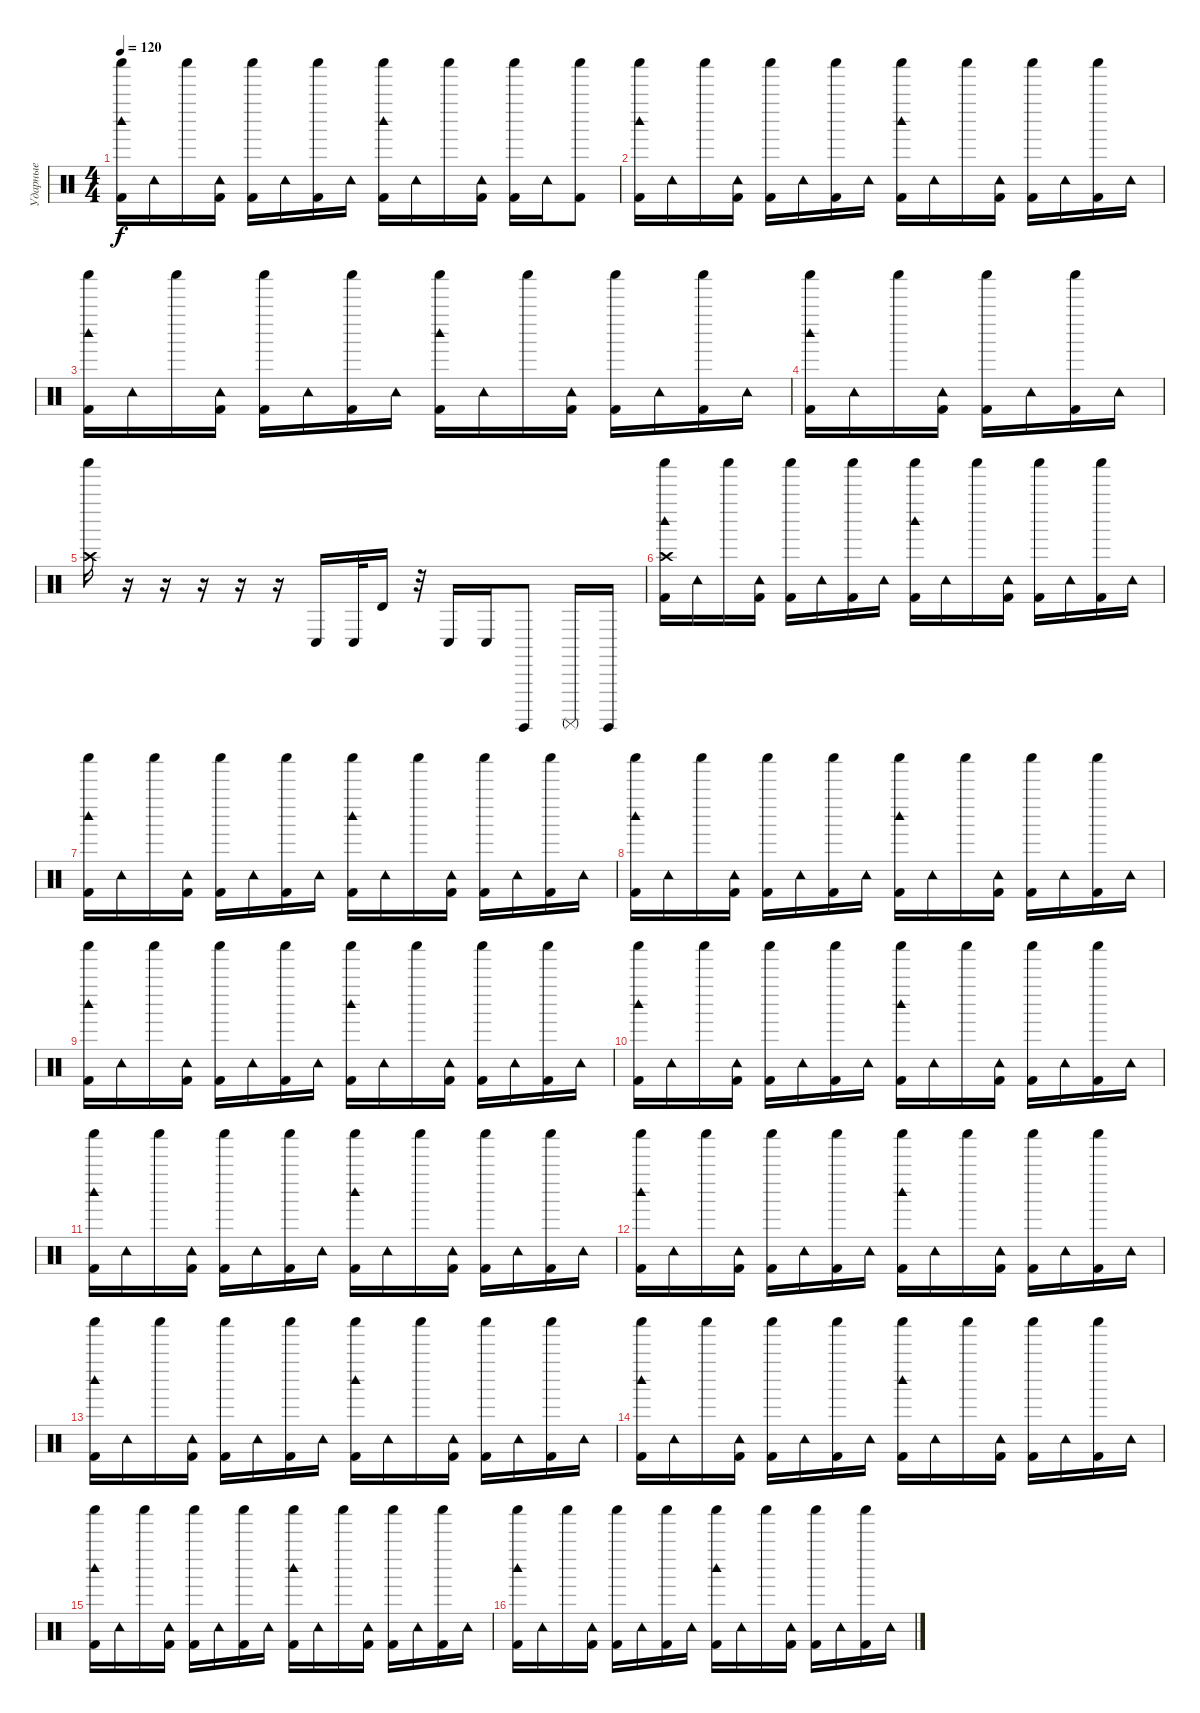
\track ("Ударные" "Ударные") {instrument percussion}
\staff {score}
\articulation defaults
\ts (4 4)
\tempo 120
\clef neutral
\ks c
("Shaker (hit)" "Kick (hit) 2" "Woodblock high (hit)").16{dy f} "Tambourine (hit)".16 "Shaker (hit)".16 ("Tambourine (hit)" "Kick (hit) 2").16 ("Shaker (hit)" "Kick (hit) 2").16 "Tambourine (hit)".16 ("Shaker (hit)" "Kick (hit) 2").16 "Tambourine (hit)".16 ("Shaker (hit)" "Kick (hit) 2" "Woodblock high (hit)").16 "Tambourine (hit)".16 "Shaker (hit)".16 ("Tambourine (hit)" "Kick (hit) 2").16 ("Shaker (hit)" "Kick (hit) 2").16 "Tambourine (hit)".16 ("Shaker (hit)" "Kick (hit) 2").8 |
("Shaker (hit)" "Kick (hit) 2" "Woodblock high (hit)").16 "Tambourine (hit)".16 "Shaker (hit)".16 ("Tambourine (hit)" "Kick (hit) 2").16 ("Shaker (hit)" "Kick (hit) 2").16 "Tambourine (hit)".16 ("Shaker (hit)" "Kick (hit) 2").16 "Tambourine (hit)".16 ("Shaker (hit)" "Kick (hit) 2" "Woodblock high (hit)").16 "Tambourine (hit)".16 "Shaker (hit)".16 ("Tambourine (hit)" "Kick (hit) 2").16 ("Shaker (hit)" "Kick (hit) 2").16 "Tambourine (hit)".16 ("Shaker (hit)" "Kick (hit) 2").16 "Tambourine (hit)".16 |
("Shaker (hit)" "Kick (hit) 2" "Woodblock high (hit)").16 "Tambourine (hit)".16 "Shaker (hit)".16 ("Tambourine (hit)" "Kick (hit) 2").16 ("Shaker (hit)" "Kick (hit) 2").16 "Tambourine (hit)".16 ("Shaker (hit)" "Kick (hit) 2").16 "Tambourine (hit)".16 ("Shaker (hit)" "Kick (hit) 2" "Woodblock high (hit)").16 "Tambourine (hit)".16 "Shaker (hit)".16 ("Tambourine (hit)" "Kick (hit) 2").16 ("Shaker (hit)" "Kick (hit) 2").16 "Tambourine (hit)".16 ("Shaker (hit)" "Kick (hit) 2").16 "Tambourine (hit)".16 |
("Shaker (hit)" "Kick (hit) 2" "Woodblock high (hit)").16 "Tambourine (hit)".16 "Shaker (hit)".16 ("Tambourine (hit)" "Kick (hit) 2").16 ("Shaker (hit)" "Kick (hit) 2").16 "Tambourine (hit)".16 ("Shaker (hit)" "Kick (hit) 2").16 "Tambourine (hit)".16 |
("Shaker (hit)" "Crash high (hit)").16 r.16 r.16 r.16 r.16 r.16 "Conga low (hit)".16 "Conga low (hit)".32 "Timbale high (hit)".16 r.32 "Conga low (hit)".16 "Conga low (hit)".16 "Surdo (hit)".8 "Surdo (mute)".16 "Surdo (hit)".16 |
("Shaker (hit)" "Kick (hit) 2" "Woodblock high (hit)" "Crash high (hit)").16 "Tambourine (hit)".16 "Shaker (hit)".16 ("Tambourine (hit)" "Kick (hit) 2").16 ("Shaker (hit)" "Kick (hit) 2").16 "Tambourine (hit)".16 ("Shaker (hit)" "Kick (hit) 2").16 "Tambourine (hit)".16 ("Shaker (hit)" "Kick (hit) 2" "Woodblock high (hit)").16 "Tambourine (hit)".16 "Shaker (hit)".16 ("Tambourine (hit)" "Kick (hit) 2").16 ("Shaker (hit)" "Kick (hit) 2").16 "Tambourine (hit)".16 ("Shaker (hit)" "Kick (hit) 2").16 "Tambourine (hit)".16 |
("Shaker (hit)" "Kick (hit) 2" "Woodblock high (hit)").16 "Tambourine (hit)".16 "Shaker (hit)".16 ("Tambourine (hit)" "Kick (hit) 2").16 ("Shaker (hit)" "Kick (hit) 2").16 "Tambourine (hit)".16 ("Shaker (hit)" "Kick (hit) 2").16 "Tambourine (hit)".16 ("Shaker (hit)" "Kick (hit) 2" "Woodblock high (hit)").16 "Tambourine (hit)".16 "Shaker (hit)".16 ("Tambourine (hit)" "Kick (hit) 2").16 ("Shaker (hit)" "Kick (hit) 2").16 "Tambourine (hit)".16 ("Shaker (hit)" "Kick (hit) 2").16 "Tambourine (hit)".16 |
("Shaker (hit)" "Kick (hit) 2" "Woodblock high (hit)").16 "Tambourine (hit)".16 "Shaker (hit)".16 ("Tambourine (hit)" "Kick (hit) 2").16 ("Shaker (hit)" "Kick (hit) 2").16 "Tambourine (hit)".16 ("Shaker (hit)" "Kick (hit) 2").16 "Tambourine (hit)".16 ("Shaker (hit)" "Kick (hit) 2" "Woodblock high (hit)").16 "Tambourine (hit)".16 "Shaker (hit)".16 ("Tambourine (hit)" "Kick (hit) 2").16 ("Shaker (hit)" "Kick (hit) 2").16 "Tambourine (hit)".16 ("Shaker (hit)" "Kick (hit) 2").16 "Tambourine (hit)".16 |
("Shaker (hit)" "Kick (hit) 2" "Woodblock high (hit)").16 "Tambourine (hit)".16 "Shaker (hit)".16 ("Tambourine (hit)" "Kick (hit) 2").16 ("Shaker (hit)" "Kick (hit) 2").16 "Tambourine (hit)".16 ("Shaker (hit)" "Kick (hit) 2").16 "Tambourine (hit)".16 ("Shaker (hit)" "Kick (hit) 2" "Woodblock high (hit)").16 "Tambourine (hit)".16 "Shaker (hit)".16 ("Tambourine (hit)" "Kick (hit) 2").16 ("Shaker (hit)" "Kick (hit) 2").16 "Tambourine (hit)".16 ("Shaker (hit)" "Kick (hit) 2").16 "Tambourine (hit)".16 |
("Shaker (hit)" "Kick (hit) 2" "Woodblock high (hit)").16 "Tambourine (hit)".16 "Shaker (hit)".16 ("Tambourine (hit)" "Kick (hit) 2").16 ("Shaker (hit)" "Kick (hit) 2").16 "Tambourine (hit)".16 ("Shaker (hit)" "Kick (hit) 2").16 "Tambourine (hit)".16 ("Shaker (hit)" "Kick (hit) 2" "Woodblock high (hit)").16 "Tambourine (hit)".16 "Shaker (hit)".16 ("Tambourine (hit)" "Kick (hit) 2").16 ("Shaker (hit)" "Kick (hit) 2").16 "Tambourine (hit)".16 ("Shaker (hit)" "Kick (hit) 2").16 "Tambourine (hit)".16 |
("Shaker (hit)" "Kick (hit) 2" "Woodblock high (hit)").16 "Tambourine (hit)".16 "Shaker (hit)".16 ("Tambourine (hit)" "Kick (hit) 2").16 ("Shaker (hit)" "Kick (hit) 2").16 "Tambourine (hit)".16 ("Shaker (hit)" "Kick (hit) 2").16 "Tambourine (hit)".16 ("Shaker (hit)" "Kick (hit) 2" "Woodblock high (hit)").16 "Tambourine (hit)".16 "Shaker (hit)".16 ("Tambourine (hit)" "Kick (hit) 2").16 ("Shaker (hit)" "Kick (hit) 2").16 "Tambourine (hit)".16 ("Shaker (hit)" "Kick (hit) 2").16 "Tambourine (hit)".16 |
("Shaker (hit)" "Kick (hit) 2" "Woodblock high (hit)").16 "Tambourine (hit)".16 "Shaker (hit)".16 ("Tambourine (hit)" "Kick (hit) 2").16 ("Shaker (hit)" "Kick (hit) 2").16 "Tambourine (hit)".16 ("Shaker (hit)" "Kick (hit) 2").16 "Tambourine (hit)".16 ("Shaker (hit)" "Kick (hit) 2" "Woodblock high (hit)").16 "Tambourine (hit)".16 "Shaker (hit)".16 ("Tambourine (hit)" "Kick (hit) 2").16 ("Shaker (hit)" "Kick (hit) 2").16 "Tambourine (hit)".16 ("Shaker (hit)" "Kick (hit) 2").16 "Tambourine (hit)".16 |
("Shaker (hit)" "Kick (hit) 2" "Woodblock high (hit)").16 "Tambourine (hit)".16 "Shaker (hit)".16 ("Tambourine (hit)" "Kick (hit) 2").16 ("Shaker (hit)" "Kick (hit) 2").16 "Tambourine (hit)".16 ("Shaker (hit)" "Kick (hit) 2").16 "Tambourine (hit)".16 ("Shaker (hit)" "Kick (hit) 2" "Woodblock high (hit)").16 "Tambourine (hit)".16 "Shaker (hit)".16 ("Tambourine (hit)" "Kick (hit) 2").16 ("Shaker (hit)" "Kick (hit) 2").16 "Tambourine (hit)".16 ("Shaker (hit)" "Kick (hit) 2").16 "Tambourine (hit)".16 |
("Shaker (hit)" "Kick (hit) 2" "Woodblock high (hit)").16 "Tambourine (hit)".16 "Shaker (hit)".16 ("Tambourine (hit)" "Kick (hit) 2").16 ("Shaker (hit)" "Kick (hit) 2").16 "Tambourine (hit)".16 ("Shaker (hit)" "Kick (hit) 2").16 "Tambourine (hit)".16 ("Shaker (hit)" "Kick (hit) 2" "Woodblock high (hit)").16 "Tambourine (hit)".16 "Shaker (hit)".16 ("Tambourine (hit)" "Kick (hit) 2").16 ("Shaker (hit)" "Kick (hit) 2").16 "Tambourine (hit)".16 ("Shaker (hit)" "Kick (hit) 2").16 "Tambourine (hit)".16 |
("Shaker (hit)" "Kick (hit) 2" "Woodblock high (hit)").16 "Tambourine (hit)".16 "Shaker (hit)".16 ("Tambourine (hit)" "Kick (hit) 2").16 ("Shaker (hit)" "Kick (hit) 2").16 "Tambourine (hit)".16 ("Shaker (hit)" "Kick (hit) 2").16 "Tambourine (hit)".16 ("Shaker (hit)" "Kick (hit) 2" "Woodblock high (hit)").16 "Tambourine (hit)".16 "Shaker (hit)".16 ("Tambourine (hit)" "Kick (hit) 2").16 ("Shaker (hit)" "Kick (hit) 2").16 "Tambourine (hit)".16 ("Shaker (hit)" "Kick (hit) 2").16 "Tambourine (hit)".16 |
("Shaker (hit)" "Kick (hit) 2" "Woodblock high (hit)").16 "Tambourine (hit)".16 "Shaker (hit)".16 ("Tambourine (hit)" "Kick (hit) 2").16 ("Shaker (hit)" "Kick (hit) 2").16 "Tambourine (hit)".16 ("Shaker (hit)" "Kick (hit) 2").16 "Tambourine (hit)".16 ("Shaker (hit)" "Kick (hit) 2" "Woodblock high (hit)").16 "Tambourine (hit)".16 "Shaker (hit)".16 ("Tambourine (hit)" "Kick (hit) 2").16 ("Shaker (hit)" "Kick (hit) 2").16 "Tambourine (hit)".16 ("Shaker (hit)" "Kick (hit) 2").16 "Tambourine (hit)".16
